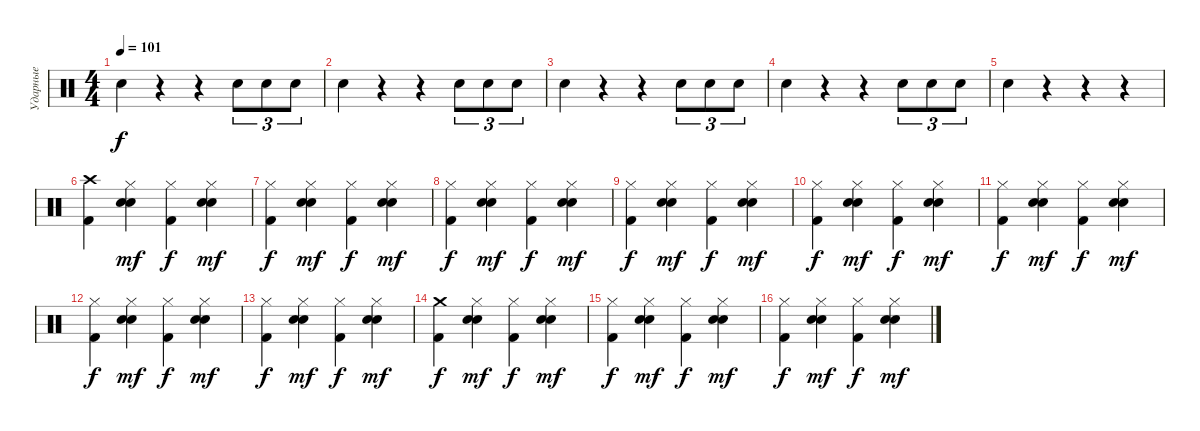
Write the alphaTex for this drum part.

\track ("Ударные" "Ударные") {instrument percussion}
\staff {score}
\articulation defaults
\ts (4 4)
\tempo 101
\clef neutral
\ks c "Snare (hit) 2".4{dy f}
r.4 r.4 "Snare (hit) 2".8{tu (3 2)} "Snare (hit) 2".8{tu (3 2)} "Snare (hit) 2".8{tu (3 2)} |
"Snare (hit) 2".4 r.4 r.4 "Snare (hit) 2".8{tu (3 2)} "Snare (hit) 2".8{tu (3 2)} "Snare (hit) 2".8{tu (3 2)} |
"Snare (hit) 2".4 r.4 r.4 "Snare (hit) 2".8{tu (3 2)} "Snare (hit) 2".8{tu (3 2)} "Snare (hit) 2".8{tu (3 2)} |
"Snare (hit) 2".4 r.4 r.4 "Snare (hit) 2".8{tu (3 2)} "Snare (hit) 2".8{tu (3 2)} "Snare (hit) 2".8{tu (3 2)} |
"Snare (hit) 2".4 r.4 r.4 r.4 |
("Kick (hit) 2" "Crash high (hit)").4 ("Electric Snare (hit)" "Hand Clap (hit)" "Hi-Hat (closed)").4{dy mf} ("Kick (hit) 2" "Hi-Hat (closed)").4{dy f} ("Electric Snare (hit)" "Hand Clap (hit)" "Hi-Hat (closed)").4{dy mf} |
("Kick (hit) 2" "Hi-Hat (closed)").4{dy f} ("Electric Snare (hit)" "Hand Clap (hit)" "Hi-Hat (closed)").4{dy mf} ("Kick (hit) 2" "Hi-Hat (closed)").4{dy f} ("Electric Snare (hit)" "Hand Clap (hit)" "Hi-Hat (closed)").4{dy mf} |
("Kick (hit) 2" "Hi-Hat (closed)").4{dy f} ("Electric Snare (hit)" "Hand Clap (hit)" "Hi-Hat (closed)").4{dy mf} ("Kick (hit) 2" "Hi-Hat (closed)").4{dy f} ("Electric Snare (hit)" "Hand Clap (hit)" "Hi-Hat (closed)").4{dy mf} |
("Kick (hit) 2" "Hi-Hat (closed)").4{dy f} ("Electric Snare (hit)" "Hand Clap (hit)" "Hi-Hat (closed)").4{dy mf} ("Kick (hit) 2" "Hi-Hat (closed)").4{dy f} ("Electric Snare (hit)" "Hand Clap (hit)" "Hi-Hat (closed)").4{dy mf} |
("Kick (hit) 2" "Hi-Hat (closed)").4{dy f} ("Electric Snare (hit)" "Hand Clap (hit)" "Hi-Hat (closed)").4{dy mf} ("Kick (hit) 2" "Hi-Hat (closed)").4{dy f} ("Electric Snare (hit)" "Hand Clap (hit)" "Hi-Hat (closed)").4{dy mf} |
("Kick (hit) 2" "Hi-Hat (closed)").4{dy f} ("Electric Snare (hit)" "Hand Clap (hit)" "Hi-Hat (closed)").4{dy mf} ("Kick (hit) 2" "Hi-Hat (closed)").4{dy f} ("Electric Snare (hit)" "Hand Clap (hit)" "Hi-Hat (closed)").4{dy mf} |
("Kick (hit) 2" "Hi-Hat (closed)").4{dy f} ("Electric Snare (hit)" "Hand Clap (hit)" "Hi-Hat (closed)").4{dy mf} ("Kick (hit) 2" "Hi-Hat (closed)").4{dy f} ("Electric Snare (hit)" "Hand Clap (hit)" "Hi-Hat (closed)").4{dy mf} |
("Kick (hit) 2" "Hi-Hat (closed)").4{dy f} ("Electric Snare (hit)" "Hand Clap (hit)" "Hi-Hat (closed)").4{dy mf} ("Kick (hit) 2" "Hi-Hat (closed)").4{dy f} ("Electric Snare (hit)" "Hand Clap (hit)" "Hi-Hat (closed)").4{dy mf} |
("Kick (hit) 2" "Crash medium (hit)").4{dy f} ("Electric Snare (hit)" "Hand Clap (hit)" "Hi-Hat (closed)").4{dy mf} ("Kick (hit) 2" "Hi-Hat (closed)").4{dy f} ("Electric Snare (hit)" "Hand Clap (hit)" "Hi-Hat (closed)").4{dy mf} |
("Kick (hit) 2" "Hi-Hat (closed)").4{dy f} ("Electric Snare (hit)" "Hand Clap (hit)" "Hi-Hat (closed)").4{dy mf} ("Kick (hit) 2" "Hi-Hat (closed)").4{dy f} ("Electric Snare (hit)" "Hand Clap (hit)" "Hi-Hat (closed)").4{dy mf} |
("Kick (hit) 2" "Hi-Hat (closed)").4{dy f} ("Electric Snare (hit)" "Hand Clap (hit)" "Hi-Hat (closed)").4{dy mf} ("Kick (hit) 2" "Hi-Hat (closed)").4{dy f} ("Electric Snare (hit)" "Hand Clap (hit)" "Hi-Hat (closed)").4{dy mf}
